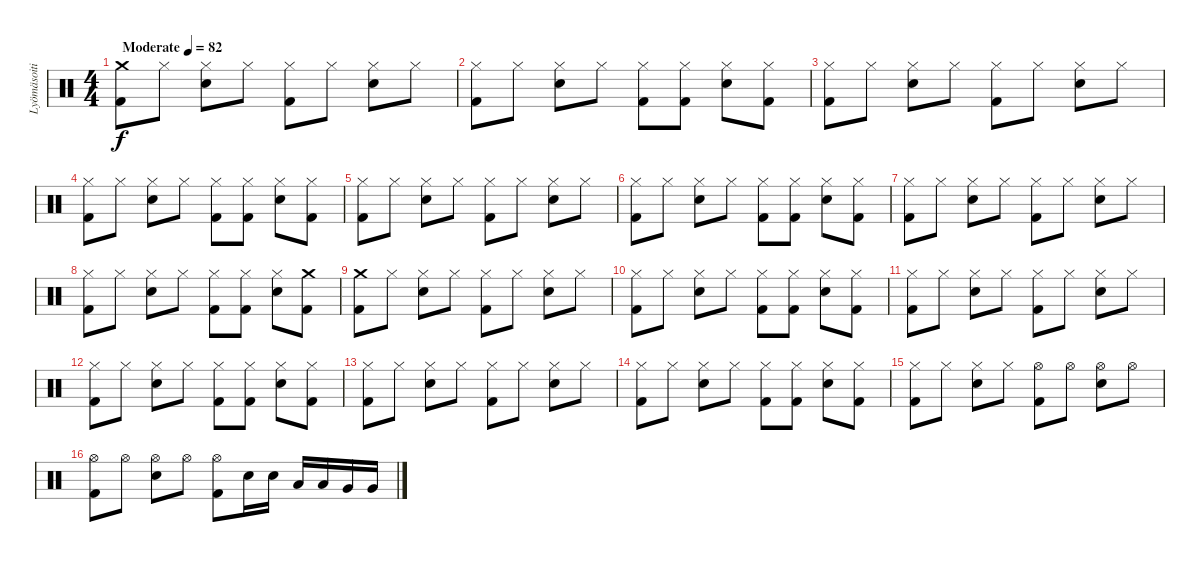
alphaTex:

\track ("Lyömäsoitin" "Lyömäsoiti") {instrument percussion}
\staff {score}
\articulation defaults
\ts (4 4)
\tempo (82 "Moderate")
\clef neutral
\ks c
("Crash medium (hit)" "Kick (hit) 2").8{dy f} "Hi-Hat (closed)".8 ("Hi-Hat (closed)" "Electric Snare (hit)").8 "Hi-Hat (closed)".8 ("Hi-Hat (closed)" "Kick (hit) 2").8 "Hi-Hat (closed)".8 ("Hi-Hat (closed)" "Electric Snare (hit)").8 "Hi-Hat (closed)".8 |
("Hi-Hat (closed)" "Kick (hit) 2").8 "Hi-Hat (closed)".8 ("Hi-Hat (closed)" "Electric Snare (hit)").8 "Hi-Hat (closed)".8 ("Hi-Hat (closed)" "Kick (hit) 2").8 ("Hi-Hat (closed)" "Kick (hit) 2").8 ("Hi-Hat (closed)" "Electric Snare (hit)").8 ("Hi-Hat (closed)" "Kick (hit) 2").8 |
("Hi-Hat (closed)" "Kick (hit) 2").8 "Hi-Hat (closed)".8 ("Hi-Hat (closed)" "Electric Snare (hit)").8 "Hi-Hat (closed)".8 ("Hi-Hat (closed)" "Kick (hit) 2").8 "Hi-Hat (closed)".8 ("Hi-Hat (closed)" "Electric Snare (hit)").8 "Hi-Hat (closed)".8 |
("Hi-Hat (closed)" "Kick (hit) 2").8 "Hi-Hat (closed)".8 ("Hi-Hat (closed)" "Electric Snare (hit)").8 "Hi-Hat (closed)".8 ("Hi-Hat (closed)" "Kick (hit) 2").8 ("Hi-Hat (closed)" "Kick (hit) 2").8 ("Hi-Hat (closed)" "Electric Snare (hit)").8 ("Hi-Hat (closed)" "Kick (hit) 2").8 |
("Hi-Hat (closed)" "Kick (hit) 2").8 "Hi-Hat (closed)".8 ("Hi-Hat (closed)" "Electric Snare (hit)").8 "Hi-Hat (closed)".8 ("Hi-Hat (closed)" "Kick (hit) 2").8 "Hi-Hat (closed)".8 ("Hi-Hat (closed)" "Electric Snare (hit)").8 "Hi-Hat (closed)".8 |
("Hi-Hat (closed)" "Kick (hit) 2").8 "Hi-Hat (closed)".8 ("Hi-Hat (closed)" "Electric Snare (hit)").8 "Hi-Hat (closed)".8 ("Hi-Hat (closed)" "Kick (hit) 2").8 ("Hi-Hat (closed)" "Kick (hit) 2").8 ("Hi-Hat (closed)" "Electric Snare (hit)").8 ("Hi-Hat (closed)" "Kick (hit) 2").8 |
("Hi-Hat (closed)" "Kick (hit) 2").8 "Hi-Hat (closed)".8 ("Hi-Hat (closed)" "Electric Snare (hit)").8 "Hi-Hat (closed)".8 ("Hi-Hat (closed)" "Kick (hit) 2").8 "Hi-Hat (closed)".8 ("Hi-Hat (closed)" "Electric Snare (hit)").8 "Hi-Hat (closed)".8 |
("Hi-Hat (closed)" "Kick (hit) 2").8 "Hi-Hat (closed)".8 ("Hi-Hat (closed)" "Electric Snare (hit)").8 "Hi-Hat (closed)".8 ("Hi-Hat (closed)" "Kick (hit) 2").8 ("Hi-Hat (closed)" "Kick (hit) 2").8 ("Hi-Hat (closed)" "Electric Snare (hit)").8 ("Crash medium (hit)" "Kick (hit) 2").8 |
("Crash medium (hit)" "Kick (hit) 2").8 "Hi-Hat (closed)".8 ("Hi-Hat (closed)" "Electric Snare (hit)").8 "Hi-Hat (closed)".8 ("Hi-Hat (closed)" "Kick (hit) 2").8 "Hi-Hat (closed)".8 ("Hi-Hat (closed)" "Electric Snare (hit)").8 "Hi-Hat (closed)".8 |
("Hi-Hat (closed)" "Kick (hit) 2").8 "Hi-Hat (closed)".8 ("Hi-Hat (closed)" "Electric Snare (hit)").8 "Hi-Hat (closed)".8 ("Hi-Hat (closed)" "Kick (hit) 2").8 ("Hi-Hat (closed)" "Kick (hit) 2").8 ("Hi-Hat (closed)" "Electric Snare (hit)").8 ("Hi-Hat (closed)" "Kick (hit) 2").8 |
("Hi-Hat (closed)" "Kick (hit) 2").8 "Hi-Hat (closed)".8 ("Hi-Hat (closed)" "Electric Snare (hit)").8 "Hi-Hat (closed)".8 ("Hi-Hat (closed)" "Kick (hit) 2").8 "Hi-Hat (closed)".8 ("Hi-Hat (closed)" "Electric Snare (hit)").8 "Hi-Hat (closed)".8 |
("Hi-Hat (closed)" "Kick (hit) 2").8 "Hi-Hat (closed)".8 ("Hi-Hat (closed)" "Electric Snare (hit)").8 "Hi-Hat (closed)".8 ("Hi-Hat (closed)" "Kick (hit) 2").8 ("Hi-Hat (closed)" "Kick (hit) 2").8 ("Hi-Hat (closed)" "Electric Snare (hit)").8 ("Hi-Hat (closed)" "Kick (hit) 2").8 |
("Hi-Hat (closed)" "Kick (hit) 2").8 "Hi-Hat (closed)".8 ("Hi-Hat (closed)" "Electric Snare (hit)").8 "Hi-Hat (closed)".8 ("Hi-Hat (closed)" "Kick (hit) 2").8 "Hi-Hat (closed)".8 ("Hi-Hat (closed)" "Electric Snare (hit)").8 "Hi-Hat (closed)".8 |
("Hi-Hat (closed)" "Kick (hit) 2").8 "Hi-Hat (closed)".8 ("Hi-Hat (closed)" "Electric Snare (hit)").8 "Hi-Hat (closed)".8 ("Hi-Hat (closed)" "Kick (hit) 2").8 ("Hi-Hat (closed)" "Kick (hit) 2").8 ("Hi-Hat (closed)" "Electric Snare (hit)").8 ("Hi-Hat (closed)" "Kick (hit) 2").8 |
("Hi-Hat (closed)" "Kick (hit) 2").8 "Hi-Hat (closed)".8 ("Hi-Hat (closed)" "Electric Snare (hit)").8 "Hi-Hat (closed)".8 ("Hi-Hat (open)" "Kick (hit) 2").8 "Hi-Hat (open)".8 ("Hi-Hat (open)" "Electric Snare (hit)").8 "Hi-Hat (open)".8 |
("Hi-Hat (open)" "Kick (hit) 2").8 "Hi-Hat (open)".8 ("Hi-Hat (open)" "Electric Snare (hit)").8 "Hi-Hat (open)".8 ("Hi-Hat (open)" "Kick (hit) 2").8 "Electric Snare (hit)".16 "Electric Snare (hit)".16 "Low Tom (hit)".16 "Low Tom (hit)".16 "Very Low Tom (hit)".16 "Very Low Tom (hit)".16
